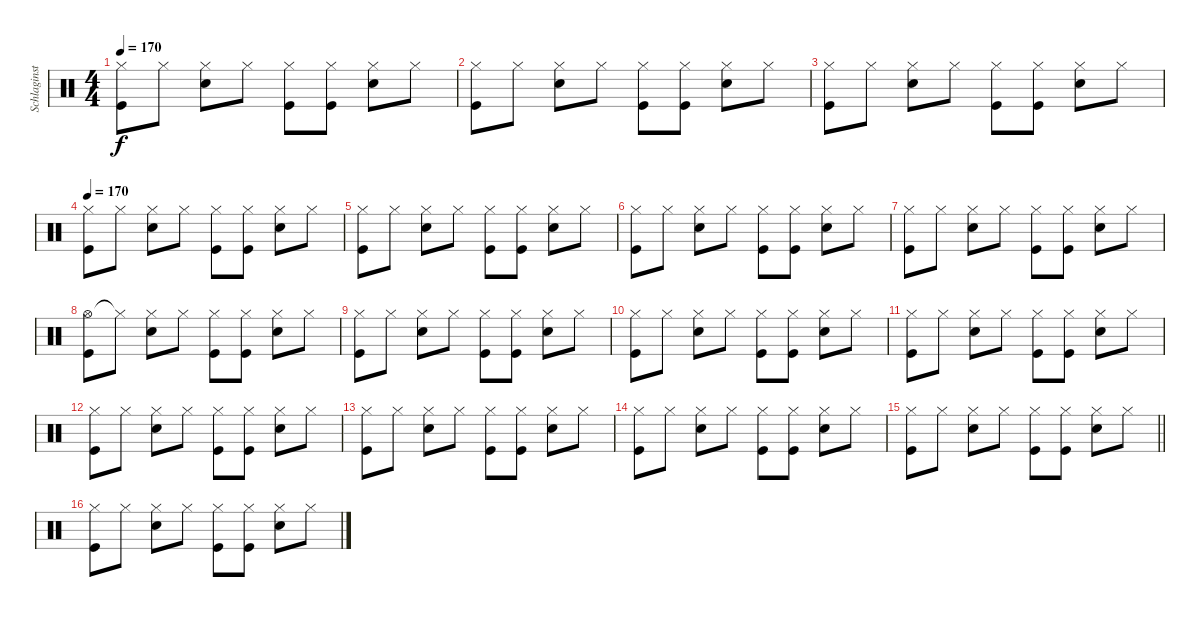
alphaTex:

\track ("Schlaginstrumente - Auswahl" "Schlaginst") {instrument percussion}
\staff {score}
\articulation defaults
\ts (4 4)
\tempo 170
\clef neutral
\ks c
("Hi-Hat (closed)" "Kick (hit)").8{dy f} "Hi-Hat (closed)".8 ("Hi-Hat (closed)" "Electric Snare (hit)").8 "Hi-Hat (closed)".8 ("Hi-Hat (closed)" "Kick (hit)").8 ("Hi-Hat (closed)" "Kick (hit)").8 ("Hi-Hat (closed)" "Electric Snare (hit)").8 "Hi-Hat (closed)".8 |
("Hi-Hat (closed)" "Kick (hit)").8 "Hi-Hat (closed)".8 ("Hi-Hat (closed)" "Electric Snare (hit)").8 "Hi-Hat (closed)".8 ("Hi-Hat (closed)" "Kick (hit)").8 ("Hi-Hat (closed)" "Kick (hit)").8 ("Hi-Hat (closed)" "Electric Snare (hit)").8 "Hi-Hat (closed)".8 |
("Hi-Hat (closed)" "Kick (hit)").8 "Hi-Hat (closed)".8 ("Hi-Hat (closed)" "Electric Snare (hit)").8 "Hi-Hat (closed)".8 ("Hi-Hat (closed)" "Kick (hit)").8 ("Hi-Hat (closed)" "Kick (hit)").8 ("Hi-Hat (closed)" "Electric Snare (hit)").8 "Hi-Hat (closed)".8 |
\tempo 170
("Hi-Hat (closed)" "Kick (hit)").8 "Hi-Hat (closed)".8 ("Hi-Hat (closed)" "Electric Snare (hit)").8 "Hi-Hat (closed)".8 ("Hi-Hat (closed)" "Kick (hit)").8 ("Hi-Hat (closed)" "Kick (hit)").8 ("Hi-Hat (closed)" "Electric Snare (hit)").8 "Hi-Hat (closed)".8 |
("Hi-Hat (closed)" "Kick (hit)").8 "Hi-Hat (closed)".8 ("Hi-Hat (closed)" "Electric Snare (hit)").8 "Hi-Hat (closed)".8 ("Hi-Hat (closed)" "Kick (hit)").8 ("Hi-Hat (closed)" "Kick (hit)").8 ("Hi-Hat (closed)" "Electric Snare (hit)").8 "Hi-Hat (closed)".8 |
("Hi-Hat (closed)" "Kick (hit)").8 "Hi-Hat (closed)".8 ("Hi-Hat (closed)" "Electric Snare (hit)").8 "Hi-Hat (closed)".8 ("Hi-Hat (closed)" "Kick (hit)").8 ("Hi-Hat (closed)" "Kick (hit)").8 ("Hi-Hat (closed)" "Electric Snare (hit)").8 "Hi-Hat (closed)".8 |
("Hi-Hat (closed)" "Kick (hit)").8 "Hi-Hat (closed)".8 ("Hi-Hat (closed)" "Electric Snare (hit)").8 "Hi-Hat (closed)".8 ("Hi-Hat (closed)" "Kick (hit)").8 ("Hi-Hat (closed)" "Kick (hit)").8 ("Hi-Hat (closed)" "Electric Snare (hit)").8 "Hi-Hat (closed)".8 |
("Hi-Hat (open)" "Kick (hit)").8 "Hi-Hat (closed)"{t}.8 ("Hi-Hat (closed)" "Electric Snare (hit)").8 "Hi-Hat (closed)".8 ("Hi-Hat (closed)" "Kick (hit)").8 ("Hi-Hat (closed)" "Kick (hit)").8 ("Hi-Hat (closed)" "Electric Snare (hit)").8 "Hi-Hat (closed)".8 |
("Hi-Hat (closed)" "Kick (hit)").8 "Hi-Hat (closed)".8 ("Hi-Hat (closed)" "Electric Snare (hit)").8 "Hi-Hat (closed)".8 ("Hi-Hat (closed)" "Kick (hit)").8 ("Hi-Hat (closed)" "Kick (hit)").8 ("Hi-Hat (closed)" "Electric Snare (hit)").8 "Hi-Hat (closed)".8 |
("Hi-Hat (closed)" "Kick (hit)").8 "Hi-Hat (closed)".8 ("Hi-Hat (closed)" "Electric Snare (hit)").8 "Hi-Hat (closed)".8 ("Hi-Hat (closed)" "Kick (hit)").8 ("Hi-Hat (closed)" "Kick (hit)").8 ("Hi-Hat (closed)" "Electric Snare (hit)").8 "Hi-Hat (closed)".8 |
("Hi-Hat (closed)" "Kick (hit)").8 "Hi-Hat (closed)".8 ("Hi-Hat (closed)" "Electric Snare (hit)").8 "Hi-Hat (closed)".8 ("Hi-Hat (closed)" "Kick (hit)").8 ("Hi-Hat (closed)" "Kick (hit)").8 ("Hi-Hat (closed)" "Electric Snare (hit)").8 "Hi-Hat (closed)".8 |
("Hi-Hat (closed)" "Kick (hit)").8 "Hi-Hat (closed)".8 ("Hi-Hat (closed)" "Electric Snare (hit)").8 "Hi-Hat (closed)".8 ("Hi-Hat (closed)" "Kick (hit)").8 ("Hi-Hat (closed)" "Kick (hit)").8 ("Hi-Hat (closed)" "Electric Snare (hit)").8 "Hi-Hat (closed)".8 |
("Hi-Hat (closed)" "Kick (hit)").8 "Hi-Hat (closed)".8 ("Hi-Hat (closed)" "Electric Snare (hit)").8 "Hi-Hat (closed)".8 ("Hi-Hat (closed)" "Kick (hit)").8 ("Hi-Hat (closed)" "Kick (hit)").8 ("Hi-Hat (closed)" "Electric Snare (hit)").8 "Hi-Hat (closed)".8 |
("Hi-Hat (closed)" "Kick (hit)").8 "Hi-Hat (closed)".8 ("Hi-Hat (closed)" "Electric Snare (hit)").8 "Hi-Hat (closed)".8 ("Hi-Hat (closed)" "Kick (hit)").8 ("Hi-Hat (closed)" "Kick (hit)").8 ("Hi-Hat (closed)" "Electric Snare (hit)").8 "Hi-Hat (closed)".8 |
\barLineRight lightlight
("Hi-Hat (closed)" "Kick (hit)").8 "Hi-Hat (closed)".8 ("Hi-Hat (closed)" "Electric Snare (hit)").8 "Hi-Hat (closed)".8 ("Hi-Hat (closed)" "Kick (hit)").8 ("Hi-Hat (closed)" "Kick (hit)").8 ("Hi-Hat (closed)" "Electric Snare (hit)").8 "Hi-Hat (closed)".8 |
("Hi-Hat (closed)" "Kick (hit)").8 "Hi-Hat (closed)".8 ("Hi-Hat (closed)" "Electric Snare (hit)").8 "Hi-Hat (closed)".8 ("Hi-Hat (closed)" "Kick (hit)").8 ("Hi-Hat (closed)" "Kick (hit)").8 ("Hi-Hat (closed)" "Electric Snare (hit)").8 "Hi-Hat (closed)".8
